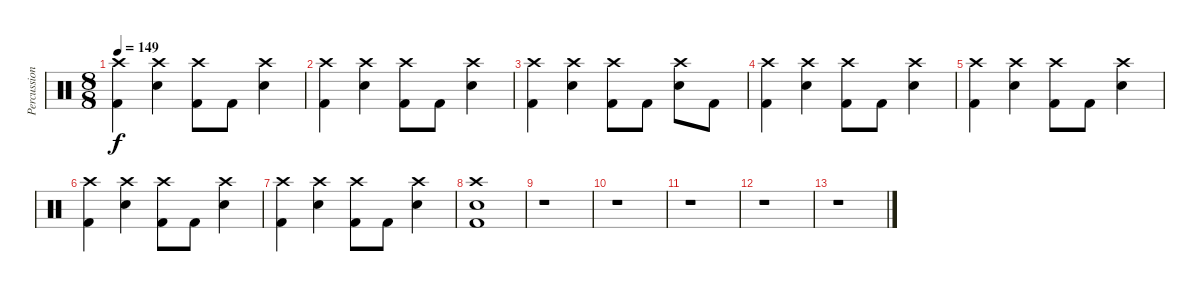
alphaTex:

\track ("Percussion" "Percussion") {instrument percussion}
\staff {score}
\articulation defaults
\ts (8 8)
\tempo 149
\clef neutral
\ks c
("Crash high (hit)" "Kick (hit) 2").4{dy f} ("Crash high (hit)" "Snare (hit) 2").4 ("Crash high (hit)" "Kick (hit) 2").8 "Kick (hit) 2".8 ("Crash high (hit)" "Snare (hit) 2").4 |
("Crash high (hit)" "Kick (hit) 2").4 ("Crash high (hit)" "Snare (hit) 2").4 ("Crash high (hit)" "Kick (hit) 2").8 "Kick (hit) 2".8 ("Crash high (hit)" "Snare (hit) 2").4 |
("Crash high (hit)" "Kick (hit) 2").4 ("Crash high (hit)" "Snare (hit) 2").4 ("Crash high (hit)" "Kick (hit) 2").8 "Kick (hit) 2".8 ("Crash high (hit)" "Snare (hit) 2").8 "Kick (hit) 2".8 |
("Crash high (hit)" "Kick (hit) 2").4 ("Crash high (hit)" "Snare (hit) 2").4 ("Crash high (hit)" "Kick (hit) 2").8 "Kick (hit) 2".8 ("Crash high (hit)" "Snare (hit) 2").4 |
("Crash high (hit)" "Kick (hit) 2").4 ("Crash high (hit)" "Snare (hit) 2").4 ("Crash high (hit)" "Kick (hit) 2").8 "Kick (hit) 2".8 ("Crash high (hit)" "Snare (hit) 2").4 |
("Crash high (hit)" "Kick (hit) 2").4 ("Crash high (hit)" "Snare (hit) 2").4 ("Crash high (hit)" "Kick (hit) 2").8 "Kick (hit) 2".8 ("Crash high (hit)" "Snare (hit) 2").4 |
("Crash high (hit)" "Kick (hit) 2").4 ("Crash high (hit)" "Snare (hit) 2").4 ("Crash high (hit)" "Kick (hit) 2").8 "Kick (hit) 2".8 ("Crash high (hit)" "Snare (hit) 2").4 |
("Crash high (hit)" "Snare (hit) 2" "Kick (hit) 2").1 |
r.1 |
r.1 |
r.1 |
r.1 |
r.1
